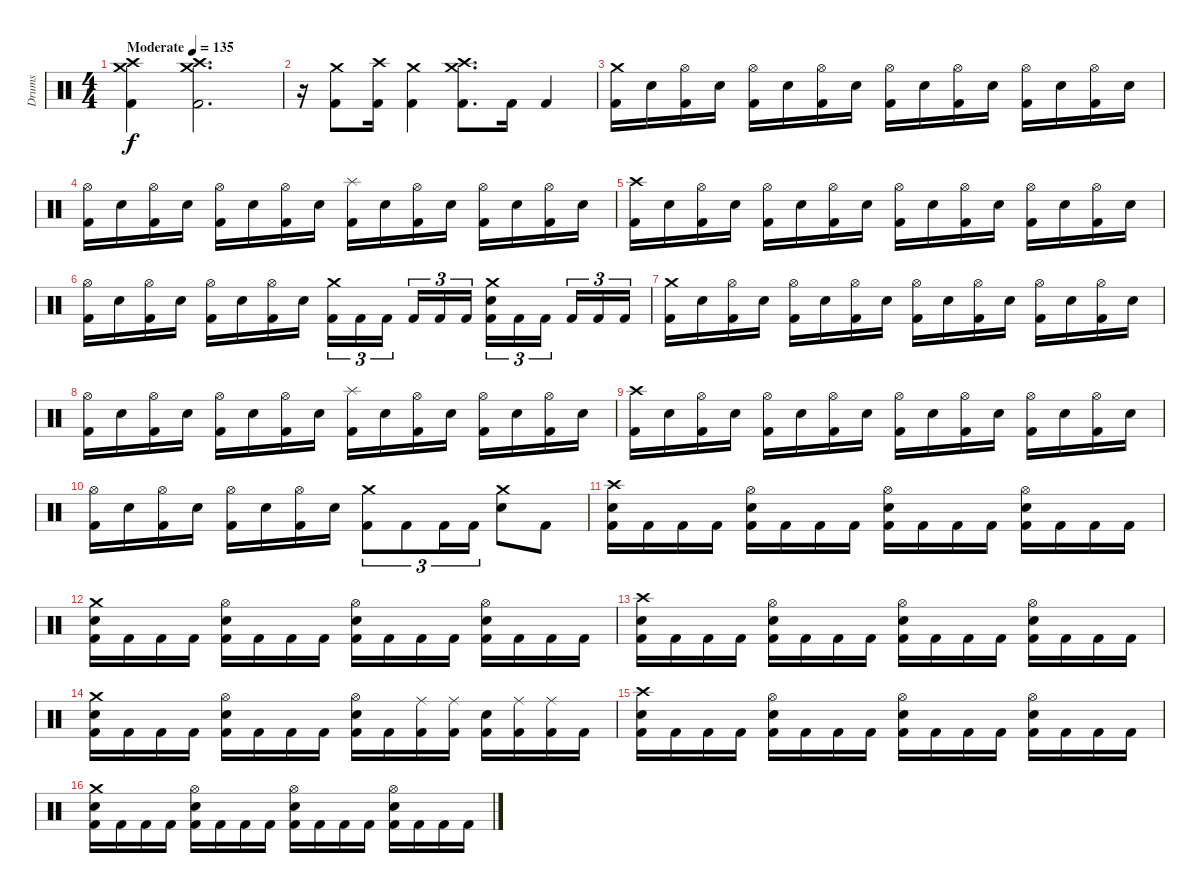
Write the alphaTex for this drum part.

\track ("Drums" "Drums") {instrument percussion}
\staff {score}
\articulation defaults
\ts (4 4)
\tempo (135 "Moderate")
\clef neutral
\ks c
("Crash high (hit)" "Crash medium (hit)" "Kick (hit) 2").4{dy f} ("Crash high (hit)" "Crash medium (hit)" "Kick (hit) 2").2{d} |
r.16 ("Crash medium (hit)" "Kick (hit) 2").8 ("Crash high (hit)" "Kick (hit) 2").16 ("Crash medium (hit)" "Kick (hit) 2").4 ("Crash high (hit)" "Crash medium (hit)" "Kick (hit) 2").8{d} "Kick (hit) 2".16 "Kick (hit) 2".4 |
("Crash medium (hit)" "Kick (hit) 2").16 "Electric Snare (hit)".16 ("Hi-Hat (open)" "Kick (hit) 2").16 "Electric Snare (hit)".16 ("Hi-Hat (open)" "Kick (hit) 2").16 "Electric Snare (hit)".16 ("Hi-Hat (open)" "Kick (hit) 2").16 "Electric Snare (hit)".16 ("Hi-Hat (open)" "Kick (hit) 2").16 "Electric Snare (hit)".16 ("Hi-Hat (open)" "Kick (hit) 2").16 "Electric Snare (hit)".16 ("Hi-Hat (open)" "Kick (hit) 2").16 "Electric Snare (hit)".16 ("Hi-Hat (open)" "Kick (hit) 2").16 "Electric Snare (hit)".16 |
("Hi-Hat (open)" "Kick (hit) 2").16 "Electric Snare (hit)".16 ("Hi-Hat (open)" "Kick (hit) 2").16 "Electric Snare (hit)".16 ("Hi-Hat (open)" "Kick (hit) 2").16 "Electric Snare (hit)".16 ("Hi-Hat (open)" "Kick (hit) 2").16 "Electric Snare (hit)".16 ("Splash (hit)" "Kick (hit) 2").16 "Electric Snare (hit)".16 ("Hi-Hat (open)" "Kick (hit) 2").16 "Electric Snare (hit)".16 ("Hi-Hat (open)" "Kick (hit) 2").16 "Electric Snare (hit)".16 ("Hi-Hat (open)" "Kick (hit) 2").16 "Electric Snare (hit)".16 |
("Crash high (hit)" "Kick (hit) 2").16 "Electric Snare (hit)".16 ("Hi-Hat (open)" "Kick (hit) 2").16 "Electric Snare (hit)".16 ("Hi-Hat (open)" "Kick (hit) 2").16 "Electric Snare (hit)".16 ("Hi-Hat (open)" "Kick (hit) 2").16 "Electric Snare (hit)".16 ("Hi-Hat (open)" "Kick (hit) 2").16 "Electric Snare (hit)".16 ("Hi-Hat (open)" "Kick (hit) 2").16 "Electric Snare (hit)".16 ("Hi-Hat (open)" "Kick (hit) 2").16 "Electric Snare (hit)".16 ("Hi-Hat (open)" "Kick (hit) 2").16 "Electric Snare (hit)".16 |
("Hi-Hat (open)" "Kick (hit) 2").16 "Electric Snare (hit)".16 ("Hi-Hat (open)" "Kick (hit) 2").16 "Electric Snare (hit)".16 ("Hi-Hat (open)" "Kick (hit) 2").16 "Electric Snare (hit)".16 ("Hi-Hat (open)" "Kick (hit) 2").16 "Electric Snare (hit)".16 ("Crash medium (hit)" "Kick (hit) 2").16{tu (3 2)} "Kick (hit) 2".16{tu (3 2)} "Kick (hit) 2".16{tu (3 2) beam splitsecondary} "Kick (hit) 2".16{tu (3 2)} "Kick (hit) 2".16{tu (3 2)} "Kick (hit) 2".16{tu (3 2)} ("Crash medium (hit)" "Electric Snare (hit)" "Kick (hit) 2").16{tu (3 2)} "Kick (hit) 2".16{tu (3 2)} "Kick (hit) 2".16{tu (3 2) beam splitsecondary} "Kick (hit) 2".16{tu (3 2)} "Kick (hit) 2".16{tu (3 2)} "Kick (hit) 2".16{tu (3 2)} |
("Crash medium (hit)" "Kick (hit) 2").16 "Electric Snare (hit)".16 ("Hi-Hat (open)" "Kick (hit) 2").16 "Electric Snare (hit)".16 ("Hi-Hat (open)" "Kick (hit) 2").16 "Electric Snare (hit)".16 ("Hi-Hat (open)" "Kick (hit) 2").16 "Electric Snare (hit)".16 ("Hi-Hat (open)" "Kick (hit) 2").16 "Electric Snare (hit)".16 ("Hi-Hat (open)" "Kick (hit) 2").16 "Electric Snare (hit)".16 ("Hi-Hat (open)" "Kick (hit) 2").16 "Electric Snare (hit)".16 ("Hi-Hat (open)" "Kick (hit) 2").16 "Electric Snare (hit)".16 |
("Hi-Hat (open)" "Kick (hit) 2").16 "Electric Snare (hit)".16 ("Hi-Hat (open)" "Kick (hit) 2").16 "Electric Snare (hit)".16 ("Hi-Hat (open)" "Kick (hit) 2").16 "Electric Snare (hit)".16 ("Hi-Hat (open)" "Kick (hit) 2").16 "Electric Snare (hit)".16 ("Splash (hit)" "Kick (hit) 2").16 "Electric Snare (hit)".16 ("Hi-Hat (open)" "Kick (hit) 2").16 "Electric Snare (hit)".16 ("Hi-Hat (open)" "Kick (hit) 2").16 "Electric Snare (hit)".16 ("Hi-Hat (open)" "Kick (hit) 2").16 "Electric Snare (hit)".16 |
("Crash high (hit)" "Kick (hit) 2").16 "Electric Snare (hit)".16 ("Hi-Hat (open)" "Kick (hit) 2").16 "Electric Snare (hit)".16 ("Hi-Hat (open)" "Kick (hit) 2").16 "Electric Snare (hit)".16 ("Hi-Hat (open)" "Kick (hit) 2").16 "Electric Snare (hit)".16 ("Hi-Hat (open)" "Kick (hit) 2").16 "Electric Snare (hit)".16 ("Hi-Hat (open)" "Kick (hit) 2").16 "Electric Snare (hit)".16 ("Hi-Hat (open)" "Kick (hit) 2").16 "Electric Snare (hit)".16 ("Hi-Hat (open)" "Kick (hit) 2").16 "Electric Snare (hit)".16 |
("Hi-Hat (open)" "Kick (hit) 2").16 "Electric Snare (hit)".16 ("Hi-Hat (open)" "Kick (hit) 2").16 "Electric Snare (hit)".16 ("Hi-Hat (open)" "Kick (hit) 2").16 "Electric Snare (hit)".16 ("Hi-Hat (open)" "Kick (hit) 2").16 "Electric Snare (hit)".16 ("Crash medium (hit)" "Kick (hit) 2").8{tu (3 2)} "Kick (hit) 2".8{tu (3 2)} "Kick (hit) 2".16{tu (3 2)} "Kick (hit) 2".16{tu (3 2)} ("Crash medium (hit)" "Electric Snare (hit)").8 "Kick (hit) 2".8 |
("Crash high (hit)" "Electric Snare (hit)" "Kick (hit) 2").16 "Kick (hit) 2".16 "Kick (hit) 2".16 "Kick (hit) 2".16 ("Hi-Hat (open)" "Electric Snare (hit)" "Kick (hit) 2").16 "Kick (hit) 2".16 "Kick (hit) 2".16 "Kick (hit) 2".16 ("Hi-Hat (open)" "Electric Snare (hit)" "Kick (hit) 2").16 "Kick (hit) 2".16 "Kick (hit) 2".16 "Kick (hit) 2".16 ("Hi-Hat (open)" "Electric Snare (hit)" "Kick (hit) 2").16 "Kick (hit) 2".16 "Kick (hit) 2".16 "Kick (hit) 2".16 |
("Crash medium (hit)" "Electric Snare (hit)" "Kick (hit) 2").16 "Kick (hit) 2".16 "Kick (hit) 2".16 "Kick (hit) 2".16 ("Hi-Hat (open)" "Electric Snare (hit)" "Kick (hit) 2").16 "Kick (hit) 2".16 "Kick (hit) 2".16 "Kick (hit) 2".16 ("Hi-Hat (open)" "Electric Snare (hit)" "Kick (hit) 2").16 "Kick (hit) 2".16 "Kick (hit) 2".16 "Kick (hit) 2".16 ("Hi-Hat (open)" "Electric Snare (hit)" "Kick (hit) 2").16 "Kick (hit) 2".16 "Kick (hit) 2".16 "Kick (hit) 2".16 |
("Crash high (hit)" "Electric Snare (hit)" "Kick (hit) 2").16 "Kick (hit) 2".16 "Kick (hit) 2".16 "Kick (hit) 2".16 ("Hi-Hat (open)" "Electric Snare (hit)" "Kick (hit) 2").16 "Kick (hit) 2".16 "Kick (hit) 2".16 "Kick (hit) 2".16 ("Hi-Hat (open)" "Electric Snare (hit)" "Kick (hit) 2").16 "Kick (hit) 2".16 "Kick (hit) 2".16 "Kick (hit) 2".16 ("Hi-Hat (open)" "Electric Snare (hit)" "Kick (hit) 2").16 "Kick (hit) 2".16 "Kick (hit) 2".16 "Kick (hit) 2".16 |
("Crash medium (hit)" "Electric Snare (hit)" "Kick (hit) 2").16 "Kick (hit) 2".16 "Kick (hit) 2".16 "Kick (hit) 2".16 ("Hi-Hat (open)" "Electric Snare (hit)" "Kick (hit) 2").16 "Kick (hit) 2".16 "Kick (hit) 2".16 "Kick (hit) 2".16 ("Hi-Hat (open)" "Electric Snare (hit)" "Kick (hit) 2").16 "Kick (hit) 2".16 ("Ride (middle)" "Kick (hit) 2").16 ("Ride (middle)" "Kick (hit) 2").16 ("Electric Snare (hit)" "Kick (hit) 2").16 ("Ride (middle)" "Kick (hit) 2").16 ("Ride (middle)" "Kick (hit) 2").16 "Kick (hit) 2".16 |
("Crash high (hit)" "Electric Snare (hit)" "Kick (hit) 2").16 "Kick (hit) 2".16 "Kick (hit) 2".16 "Kick (hit) 2".16 ("Hi-Hat (open)" "Electric Snare (hit)" "Kick (hit) 2").16 "Kick (hit) 2".16 "Kick (hit) 2".16 "Kick (hit) 2".16 ("Hi-Hat (open)" "Electric Snare (hit)" "Kick (hit) 2").16 "Kick (hit) 2".16 "Kick (hit) 2".16 "Kick (hit) 2".16 ("Hi-Hat (open)" "Electric Snare (hit)" "Kick (hit) 2").16 "Kick (hit) 2".16 "Kick (hit) 2".16 "Kick (hit) 2".16 |
("Crash medium (hit)" "Electric Snare (hit)" "Kick (hit) 2").16 "Kick (hit) 2".16 "Kick (hit) 2".16 "Kick (hit) 2".16 ("Hi-Hat (open)" "Electric Snare (hit)" "Kick (hit) 2").16 "Kick (hit) 2".16 "Kick (hit) 2".16 "Kick (hit) 2".16 ("Hi-Hat (open)" "Electric Snare (hit)" "Kick (hit) 2").16 "Kick (hit) 2".16 "Kick (hit) 2".16 "Kick (hit) 2".16 ("Hi-Hat (open)" "Electric Snare (hit)" "Kick (hit) 2").16 "Kick (hit) 2".16 "Kick (hit) 2".16 "Kick (hit) 2".16
